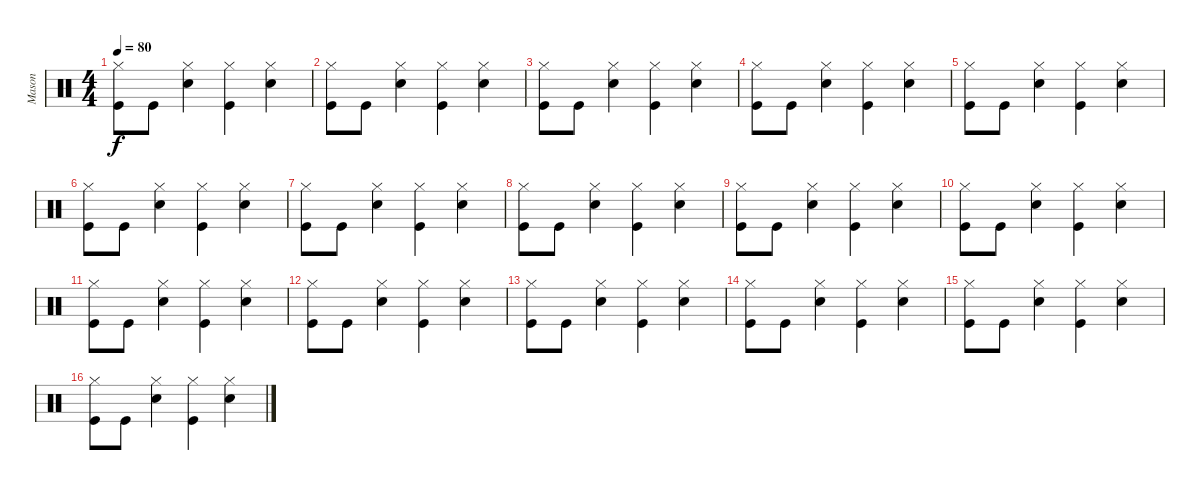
\track ("Mason" "Mason") {instrument percussion}
\staff {score}
\articulation defaults
\ts (4 4)
\tempo 80
\clef neutral
\ks c
("Kick (hit)" "Hi-Hat (closed)").8{dy f} "Kick (hit)".8 ("Snare (hit) 2" "Hi-Hat (closed)").4 ("Kick (hit)" "Hi-Hat (closed)").4 ("Snare (hit) 2" "Hi-Hat (closed)").4 |
("Kick (hit)" "Hi-Hat (closed)").8 "Kick (hit)".8 ("Snare (hit) 2" "Hi-Hat (closed)").4 ("Kick (hit)" "Hi-Hat (closed)").4 ("Snare (hit) 2" "Hi-Hat (closed)").4 |
("Kick (hit)" "Hi-Hat (closed)").8 "Kick (hit)".8 ("Snare (hit) 2" "Hi-Hat (closed)").4 ("Kick (hit)" "Hi-Hat (closed)").4 ("Snare (hit) 2" "Hi-Hat (closed)").4 |
("Kick (hit)" "Hi-Hat (closed)").8 "Kick (hit)".8 ("Snare (hit) 2" "Hi-Hat (closed)").4 ("Kick (hit)" "Hi-Hat (closed)").4 ("Snare (hit) 2" "Hi-Hat (closed)").4 |
("Kick (hit)" "Hi-Hat (closed)").8 "Kick (hit)".8 ("Snare (hit) 2" "Hi-Hat (closed)").4 ("Kick (hit)" "Hi-Hat (closed)").4 ("Snare (hit) 2" "Hi-Hat (closed)").4 |
("Kick (hit)" "Hi-Hat (closed)").8 "Kick (hit)".8 ("Snare (hit) 2" "Hi-Hat (closed)").4 ("Kick (hit)" "Hi-Hat (closed)").4 ("Snare (hit) 2" "Hi-Hat (closed)").4 |
("Kick (hit)" "Hi-Hat (closed)").8 "Kick (hit)".8 ("Snare (hit) 2" "Hi-Hat (closed)").4 ("Kick (hit)" "Hi-Hat (closed)").4 ("Snare (hit) 2" "Hi-Hat (closed)").4 |
("Kick (hit)" "Hi-Hat (closed)").8 "Kick (hit)".8 ("Snare (hit) 2" "Hi-Hat (closed)").4 ("Kick (hit)" "Hi-Hat (closed)").4 ("Snare (hit) 2" "Hi-Hat (closed)").4 |
("Kick (hit)" "Hi-Hat (closed)").8 "Kick (hit)".8 ("Snare (hit) 2" "Hi-Hat (closed)").4 ("Kick (hit)" "Hi-Hat (closed)").4 ("Snare (hit) 2" "Hi-Hat (closed)").4 |
("Kick (hit)" "Hi-Hat (closed)").8 "Kick (hit)".8 ("Snare (hit) 2" "Hi-Hat (closed)").4 ("Kick (hit)" "Hi-Hat (closed)").4 ("Snare (hit) 2" "Hi-Hat (closed)").4 |
("Kick (hit)" "Hi-Hat (closed)").8 "Kick (hit)".8 ("Snare (hit) 2" "Hi-Hat (closed)").4 ("Kick (hit)" "Hi-Hat (closed)").4 ("Snare (hit) 2" "Hi-Hat (closed)").4 |
("Kick (hit)" "Hi-Hat (closed)").8 "Kick (hit)".8 ("Snare (hit) 2" "Hi-Hat (closed)").4 ("Kick (hit)" "Hi-Hat (closed)").4 ("Snare (hit) 2" "Hi-Hat (closed)").4 |
("Kick (hit)" "Hi-Hat (closed)").8 "Kick (hit)".8 ("Snare (hit) 2" "Hi-Hat (closed)").4 ("Kick (hit)" "Hi-Hat (closed)").4 ("Snare (hit) 2" "Hi-Hat (closed)").4 |
("Kick (hit)" "Hi-Hat (closed)").8 "Kick (hit)".8 ("Snare (hit) 2" "Hi-Hat (closed)").4 ("Kick (hit)" "Hi-Hat (closed)").4 ("Snare (hit) 2" "Hi-Hat (closed)").4 |
("Kick (hit)" "Hi-Hat (closed)").8 "Kick (hit)".8 ("Snare (hit) 2" "Hi-Hat (closed)").4 ("Kick (hit)" "Hi-Hat (closed)").4 ("Snare (hit) 2" "Hi-Hat (closed)").4 |
("Kick (hit)" "Hi-Hat (closed)").8 "Kick (hit)".8 ("Snare (hit) 2" "Hi-Hat (closed)").4 ("Kick (hit)" "Hi-Hat (closed)").4 ("Snare (hit) 2" "Hi-Hat (closed)").4
